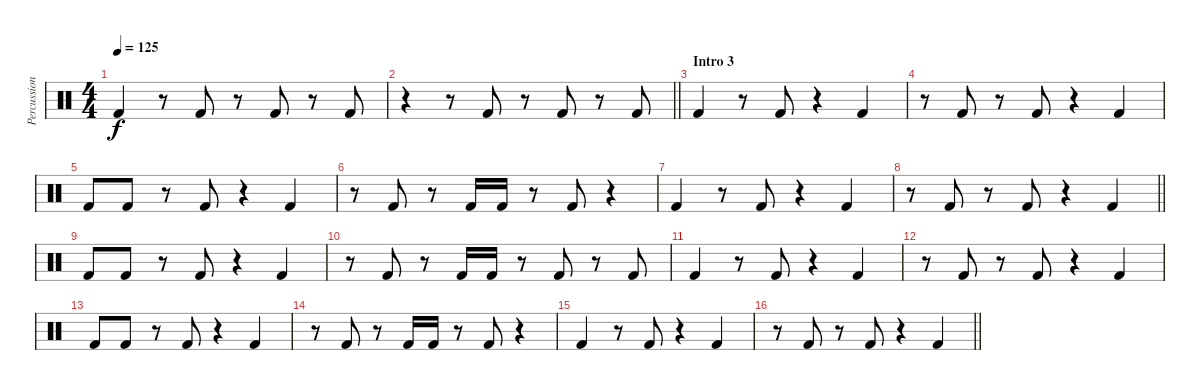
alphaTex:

\track ("Percussion (Bass Drum)" "Percussion") {instrument percussion}
\staff {score}
\articulation defaults
\ts (4 4)
\tempo 125
\clef neutral
\ks c "Kick (hit) 2".4{dy f}
r.8 "Kick (hit) 2".8 r.8 "Kick (hit) 2".8 r.8 "Kick (hit) 2".8 |
\barLineRight lightlight
r.4 r.8 "Kick (hit) 2".8 r.8 "Kick (hit) 2".8 r.8 "Kick (hit) 2".8 |
\section ("" "Intro 3")
"Kick (hit) 2".4 r.8 "Kick (hit) 2".8 r.4 "Kick (hit) 2".4 |
r.8 "Kick (hit) 2".8 r.8 "Kick (hit) 2".8 r.4 "Kick (hit) 2".4 |
"Kick (hit) 2".8 "Kick (hit) 2".8 r.8 "Kick (hit) 2".8 r.4 "Kick (hit) 2".4 |
r.8 "Kick (hit) 2".8 r.8 "Kick (hit) 2".16 "Kick (hit) 2".16 r.8 "Kick (hit) 2".8 r.4 |
"Kick (hit) 2".4 r.8 "Kick (hit) 2".8 r.4 "Kick (hit) 2".4 |
\barLineRight lightlight
r.8 "Kick (hit) 2".8 r.8 "Kick (hit) 2".8 r.4 "Kick (hit) 2".4 |
"Kick (hit) 2".8 "Kick (hit) 2".8 r.8 "Kick (hit) 2".8 r.4 "Kick (hit) 2".4 |
r.8 "Kick (hit) 2".8 r.8 "Kick (hit) 2".16 "Kick (hit) 2".16 r.8 "Kick (hit) 2".8 r.8 "Kick (hit) 2".8 |
"Kick (hit) 2".4 r.8 "Kick (hit) 2".8 r.4 "Kick (hit) 2".4 |
r.8 "Kick (hit) 2".8 r.8 "Kick (hit) 2".8 r.4 "Kick (hit) 2".4 |
"Kick (hit) 2".8 "Kick (hit) 2".8 r.8 "Kick (hit) 2".8 r.4 "Kick (hit) 2".4 |
r.8 "Kick (hit) 2".8 r.8 "Kick (hit) 2".16 "Kick (hit) 2".16 r.8 "Kick (hit) 2".8 r.4 |
"Kick (hit) 2".4 r.8 "Kick (hit) 2".8 r.4 "Kick (hit) 2".4 |
\barLineRight lightlight
r.8 "Kick (hit) 2".8 r.8 "Kick (hit) 2".8 r.4 "Kick (hit) 2".4
